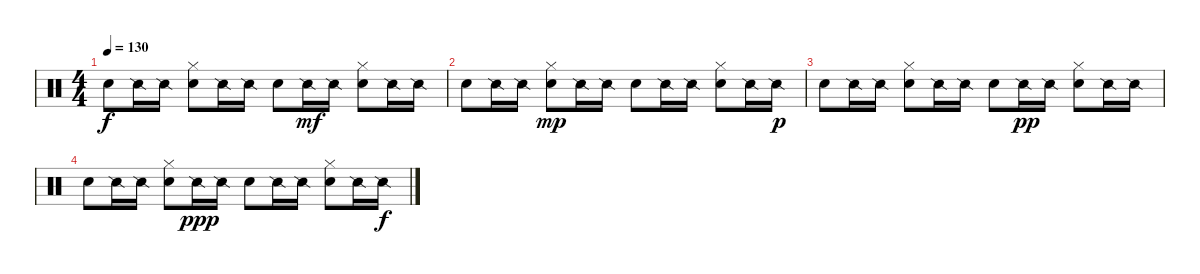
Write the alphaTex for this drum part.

\track "" {instrument percussion}
\staff {score}
\articulation defaults
\ts (4 4)
\tempo 130
\clef neutral
\ks c "Snare (hit)".8{dy f} "Snare (side stick) 2".16 "Snare (side stick) 2".16
("Snare (hit)" "Hi-Hat (closed)").8 "Snare (side stick) 2".16 "Snare (side stick) 2".16 "Snare (hit)".8 "Snare (side stick) 2".16{dy mf} "Snare (side stick) 2".16 ("Snare (hit)" "Hi-Hat (closed)").8 "Snare (side stick) 2".16 "Snare (side stick) 2".16 |
"Snare (hit)".8 "Snare (side stick) 2".16 "Snare (side stick) 2".16 ("Snare (hit)" "Hi-Hat (closed)").8{dy mp} "Snare (side stick) 2".16 "Snare (side stick) 2".16 "Snare (hit)".8 "Snare (side stick) 2".16 "Snare (side stick) 2".16 ("Snare (hit)" "Hi-Hat (closed)").8 "Snare (side stick) 2".16 "Snare (side stick) 2".16{dy p} |
"Snare (hit)".8 "Snare (side stick) 2".16 "Snare (side stick) 2".16 ("Snare (hit)" "Hi-Hat (closed)").8 "Snare (side stick) 2".16 "Snare (side stick) 2".16 "Snare (hit)".8 "Snare (side stick) 2".16{dy pp} "Snare (side stick) 2".16 ("Snare (hit)" "Hi-Hat (closed)").8 "Snare (side stick) 2".16 "Snare (side stick) 2".16 |
"Snare (hit)".8 "Snare (side stick) 2".16 "Snare (side stick) 2".16 ("Snare (hit)" "Hi-Hat (closed)").8 "Snare (side stick) 2".16{dy ppp} "Snare (side stick) 2".16 "Snare (hit)".8 "Snare (side stick) 2".16 "Snare (side stick) 2".16 ("Snare (hit)" "Hi-Hat (closed)").8 "Snare (side stick) 2".16 "Snare (side stick) 2".16{dy f}
